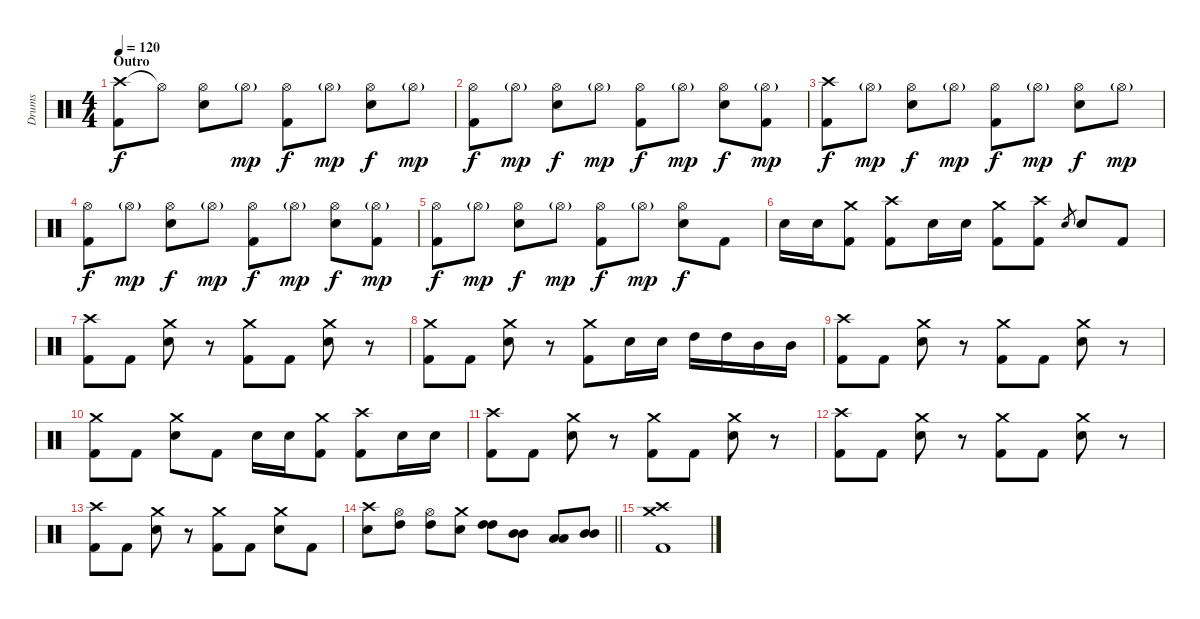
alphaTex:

\track ("Drums" "Drums") {instrument percussion}
\staff {score}
\articulation defaults
\ts (4 4)
\section ("" "Outro")
\tempo 120
\clef neutral
\ks c
("Crash high (hit)" "Kick (hit) 2").8{dy f} "Hi-Hat (open)"{t}.8 ("Hi-Hat (open)" "Electric Snare (hit)").8 "Hi-Hat (open)"{g}.8{dy mp} ("Hi-Hat (open)" "Kick (hit) 2").8{dy f} "Hi-Hat (open)"{g}.8{dy mp} ("Hi-Hat (open)" "Electric Snare (hit)").8{dy f} "Hi-Hat (open)"{g}.8{dy mp} |
("Hi-Hat (open)" "Kick (hit) 2").8{dy f} "Hi-Hat (open)"{g}.8{dy mp} ("Hi-Hat (open)" "Electric Snare (hit)").8{dy f} "Hi-Hat (open)"{g}.8{dy mp} ("Hi-Hat (open)" "Kick (hit) 2").8{dy f} "Hi-Hat (open)"{g}.8{dy mp} ("Hi-Hat (open)" "Electric Snare (hit)").8{dy f} ("Hi-Hat (open)"{g} "Kick (hit) 2").8{dy mp} |
("Crash high (hit)" "Kick (hit) 2").8{dy f} "Hi-Hat (open)"{g}.8{dy mp} ("Hi-Hat (open)" "Electric Snare (hit)").8{dy f} "Hi-Hat (open)"{g}.8{dy mp} ("Hi-Hat (open)" "Kick (hit) 2").8{dy f} "Hi-Hat (open)"{g}.8{dy mp} ("Hi-Hat (open)" "Electric Snare (hit)").8{dy f} "Hi-Hat (open)"{g}.8{dy mp} |
("Hi-Hat (open)" "Kick (hit) 2").8{dy f} "Hi-Hat (open)"{g}.8{dy mp} ("Hi-Hat (open)" "Electric Snare (hit)").8{dy f} "Hi-Hat (open)"{g}.8{dy mp} ("Hi-Hat (open)" "Kick (hit) 2").8{dy f} "Hi-Hat (open)"{g}.8{dy mp} ("Hi-Hat (open)" "Electric Snare (hit)").8{dy f} ("Hi-Hat (open)"{g} "Kick (hit) 2").8{dy mp} |
("Hi-Hat (open)" "Kick (hit) 2").8{dy f} "Hi-Hat (open)"{g}.8{dy mp} ("Hi-Hat (open)" "Electric Snare (hit)").8{dy f} "Hi-Hat (open)"{g}.8{dy mp} ("Hi-Hat (open)" "Kick (hit) 2").8{dy f} "Hi-Hat (open)"{g}.8{dy mp} ("Hi-Hat (open)" "Electric Snare (hit)").8{dy f} "Kick (hit) 2".8 |
"Electric Snare (hit)".16 "Electric Snare (hit)".16 ("Crash medium (hit)" "Kick (hit) 2").8 ("Crash high (hit)" "Kick (hit) 2").8 "Electric Snare (hit)".16 "Electric Snare (hit)".16 ("Crash medium (hit)" "Kick (hit) 2").8 ("Crash high (hit)" "Kick (hit) 2").8 "Electric Snare (hit)".8{gr} "Electric Snare (hit)".8 "Kick (hit) 2".8 |
("Crash high (hit)" "Kick (hit) 2").8 "Kick (hit) 2".8 ("Crash medium (hit)" "Electric Snare (hit)").8 r.8 ("Crash medium (hit)" "Kick (hit) 2").8 "Kick (hit) 2".8 ("Crash medium (hit)" "Electric Snare (hit)").8 r.8 |
("Crash medium (hit)" "Kick (hit) 2").8 "Kick (hit) 2".8 ("Crash medium (hit)" "Electric Snare (hit)").8 r.8 ("Crash medium (hit)" "Kick (hit) 2").8 "Electric Snare (hit)".16 "Electric Snare (hit)".16 "High Tom (hit)".16 "High Tom (hit)".16 "Mid Tom (hit)".16 "Mid Tom (hit)".16 |
("Crash high (hit)" "Kick (hit) 2").8 "Kick (hit) 2".8 ("Crash medium (hit)" "Electric Snare (hit)").8 r.8 ("Crash medium (hit)" "Kick (hit) 2").8 "Kick (hit) 2".8 ("Crash medium (hit)" "Electric Snare (hit)").8 r.8 |
("Crash medium (hit)" "Kick (hit) 2").8 "Kick (hit) 2".8 ("Crash medium (hit)" "Electric Snare (hit)").8 "Kick (hit) 2".8 "Electric Snare (hit)".16 "Electric Snare (hit)".16 ("Crash medium (hit)" "Kick (hit) 2").8 ("Crash high (hit)" "Kick (hit) 2").8 "Electric Snare (hit)".16 "Electric Snare (hit)".16 |
("Crash high (hit)" "Kick (hit) 2").8 "Kick (hit) 2".8 ("Crash medium (hit)" "Electric Snare (hit)").8 r.8 ("Crash medium (hit)" "Kick (hit) 2").8 "Kick (hit) 2".8 ("Crash medium (hit)" "Electric Snare (hit)").8 r.8 |
("Crash high (hit)" "Kick (hit) 2").8 "Kick (hit) 2".8 ("Crash medium (hit)" "Electric Snare (hit)").8 r.8 ("Crash medium (hit)" "Kick (hit) 2").8 "Kick (hit) 2".8 ("Crash medium (hit)" "Electric Snare (hit)").8 r.8 |
("Crash high (hit)" "Kick (hit) 2").8 "Kick (hit) 2".8 ("Crash medium (hit)" "Electric Snare (hit)").8 r.8 ("Crash medium (hit)" "Kick (hit) 2").8 "Kick (hit) 2".8 ("Crash medium (hit)" "Electric Snare (hit)").8 "Kick (hit) 2".8 |
\barLineRight lightlight
("Crash high (hit)" "Electric Snare (hit)").8 ("High Tom (hit)" "Hi-Hat (open)").8 ("High Tom (hit)" "Hi-Hat (open)").8 ("Crash medium (hit)" "Electric Snare (hit)").8 ("High Tom (hit)" "High Tom (hit)").8 ("Mid Tom (hit)" "Mid Tom (hit)").8 ("Low Tom (hit)" "Low Tom (hit)").8 ("Mid Tom (hit)" "Mid Tom (hit)").8 |
("Crash high (hit)" "Crash medium (hit)" "Kick (hit) 2").1
